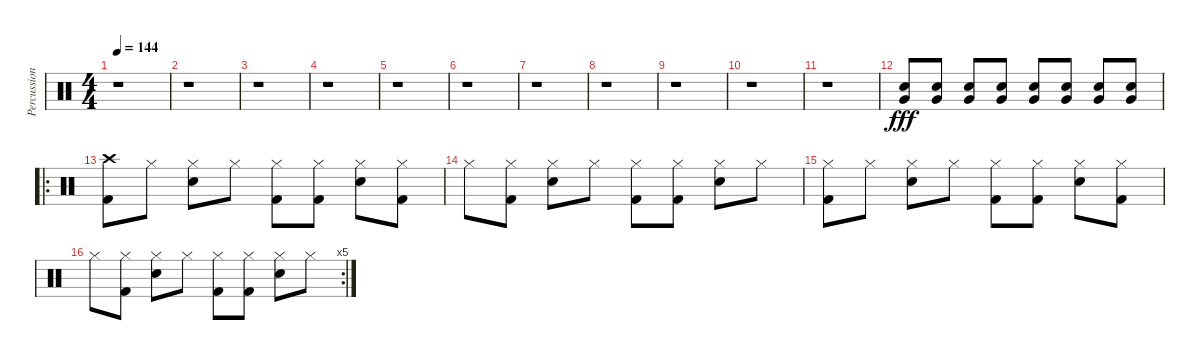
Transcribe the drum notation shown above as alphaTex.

\track ("Percussion" "Percussion") {instrument percussion}
\staff {score}
\articulation defaults
\ts (4 4)
\tempo 144
\clef neutral
\ks c
r.1{dy fff} |
r.1 |
r.1 |
r.1 |
r.1 |
r.1 |
r.1 |
r.1 |
r.1 |
r.1 |
r.1{volume 0} |
("Very Low Tom (hit)" "Snare (hit) 2").8{volume 13} ("Very Low Tom (hit)" "Snare (hit) 2").8 ("Very Low Tom (hit)" "Snare (hit) 2").8 ("Very Low Tom (hit)" "Snare (hit) 2").8 ("Very Low Tom (hit)" "Snare (hit) 2").8 ("Very Low Tom (hit)" "Snare (hit) 2").8 ("Very Low Tom (hit)" "Snare (hit) 2").8 ("Very Low Tom (hit)" "Snare (hit) 2").8 |
\ro
("Kick (hit) 2" "Crash high (hit)").8 "Hi-Hat (closed)".8 ("Snare (hit) 2" "Hi-Hat (closed)").8 "Hi-Hat (closed)".8 ("Kick (hit) 2" "Hi-Hat (closed)").8 ("Kick (hit) 2" "Hi-Hat (closed)").8 ("Snare (hit) 2" "Hi-Hat (closed)").8 ("Kick (hit) 2" "Hi-Hat (closed)").8 |
"Hi-Hat (closed)".8 ("Kick (hit) 2" "Hi-Hat (closed)").8 ("Snare (hit) 2" "Hi-Hat (closed)").8 "Hi-Hat (closed)".8 ("Kick (hit) 2" "Hi-Hat (closed)").8 ("Kick (hit) 2" "Hi-Hat (closed)").8 ("Snare (hit) 2" "Hi-Hat (closed)").8 "Hi-Hat (closed)".8 |
("Kick (hit) 2" "Hi-Hat (closed)").8 "Hi-Hat (closed)".8 ("Snare (hit) 2" "Hi-Hat (closed)").8 "Hi-Hat (closed)".8 ("Kick (hit) 2" "Hi-Hat (closed)").8 ("Kick (hit) 2" "Hi-Hat (closed)").8 ("Snare (hit) 2" "Hi-Hat (closed)").8 ("Kick (hit) 2" "Hi-Hat (closed)").8 |
\rc 5 "Hi-Hat (closed)".8
("Kick (hit) 2" "Hi-Hat (closed)").8 ("Snare (hit) 2" "Hi-Hat (closed)").8 "Hi-Hat (closed)".8 ("Kick (hit) 2" "Hi-Hat (closed)").8 ("Kick (hit) 2" "Hi-Hat (closed)").8 ("Snare (hit) 2" "Hi-Hat (closed)").8 "Hi-Hat (closed)".8
